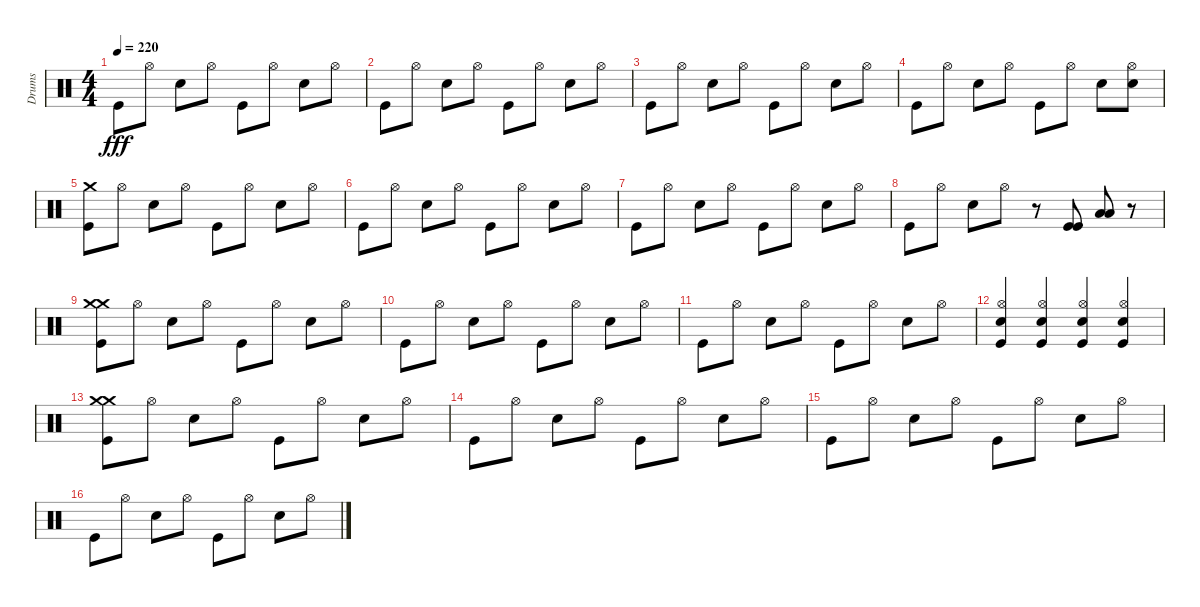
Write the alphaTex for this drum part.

\track ("Drums" "Drums") {instrument percussion}
\staff {score}
\articulation defaults
\ts (4 4)
\tempo 220
\clef neutral
\ks c "Kick (hit)".8{dy fff} "Hi-Hat (open)".8 "Snare (hit) 2".8 "Hi-Hat (open)".8 "Kick (hit)".8 "Hi-Hat (open)".8 "Snare (hit) 2".8 "Hi-Hat (open)".8
|
"Kick (hit)".8 "Hi-Hat (open)".8 "Snare (hit) 2".8 "Hi-Hat (open)".8 "Kick (hit)".8 "Hi-Hat (open)".8 "Snare (hit) 2".8 "Hi-Hat (open)".8 |
"Kick (hit)".8 "Hi-Hat (open)".8 "Snare (hit) 2".8 "Hi-Hat (open)".8 "Kick (hit)".8 "Hi-Hat (open)".8 "Snare (hit) 2".8 "Hi-Hat (open)".8 |
"Kick (hit)".8 "Hi-Hat (open)".8 "Snare (hit) 2".8 "Hi-Hat (open)".8 "Kick (hit)".8 "Hi-Hat (open)".8 "Snare (hit) 2".8 ("Hi-Hat (open)" "Snare (hit) 2").8 |
("Kick (hit)" "Crash medium (hit)").8 "Hi-Hat (open)".8 "Snare (hit) 2".8 "Hi-Hat (open)".8 "Kick (hit)".8 "Hi-Hat (open)".8 "Snare (hit) 2".8 "Hi-Hat (open)".8 |
"Kick (hit)".8 "Hi-Hat (open)".8 "Snare (hit) 2".8 "Hi-Hat (open)".8 "Kick (hit)".8 "Hi-Hat (open)".8 "Snare (hit) 2".8 "Hi-Hat (open)".8 |
"Kick (hit)".8 "Hi-Hat (open)".8 "Snare (hit) 2".8 "Hi-Hat (open)".8 "Kick (hit)".8 "Hi-Hat (open)".8 "Snare (hit) 2".8 "Hi-Hat (open)".8 |
"Kick (hit)".8 "Hi-Hat (open)".8 "Snare (hit) 2".8 "Hi-Hat (open)".8 r.8 ("Kick (hit)" "Kick (hit)").8 ("Low Floor Tom (hit)" "Low Floor Tom (hit)").8 r.8 |
("Crash medium (hit)" "Crash medium (hit)" "Kick (hit)").8 "Hi-Hat (open)".8 "Snare (hit) 2".8 "Hi-Hat (open)".8 "Kick (hit)".8 "Hi-Hat (open)".8 "Snare (hit) 2".8 "Hi-Hat (open)".8 |
"Kick (hit)".8 "Hi-Hat (open)".8 "Snare (hit) 2".8 "Hi-Hat (open)".8 "Kick (hit)".8 "Hi-Hat (open)".8 "Snare (hit) 2".8 "Hi-Hat (open)".8 |
"Kick (hit)".8 "Hi-Hat (open)".8 "Snare (hit) 2".8 "Hi-Hat (open)".8 "Kick (hit)".8 "Hi-Hat (open)".8 "Snare (hit) 2".8 "Hi-Hat (open)".8 |
("Hi-Hat (open)" "Kick (hit)" "Snare (hit) 2").4 ("Hi-Hat (open)" "Kick (hit)" "Snare (hit) 2").4 ("Hi-Hat (open)" "Kick (hit)" "Snare (hit) 2").4 ("Hi-Hat (open)" "Kick (hit)" "Snare (hit) 2").4 |
("Crash medium (hit)" "Crash medium (hit)" "Kick (hit)").8 "Hi-Hat (open)".8 "Snare (hit) 2".8 "Hi-Hat (open)".8 "Kick (hit)".8 "Hi-Hat (open)".8 "Snare (hit) 2".8 "Hi-Hat (open)".8 |
"Kick (hit)".8 "Hi-Hat (open)".8 "Snare (hit) 2".8 "Hi-Hat (open)".8 "Kick (hit)".8 "Hi-Hat (open)".8 "Snare (hit) 2".8 "Hi-Hat (open)".8 |
"Kick (hit)".8 "Hi-Hat (open)".8 "Snare (hit) 2".8 "Hi-Hat (open)".8 "Kick (hit)".8 "Hi-Hat (open)".8 "Snare (hit) 2".8 "Hi-Hat (open)".8 |
"Kick (hit)".8 "Hi-Hat (open)".8 "Snare (hit) 2".8 "Hi-Hat (open)".8 "Kick (hit)".8 "Hi-Hat (open)".8 "Snare (hit) 2".8 "Hi-Hat (open)".8
